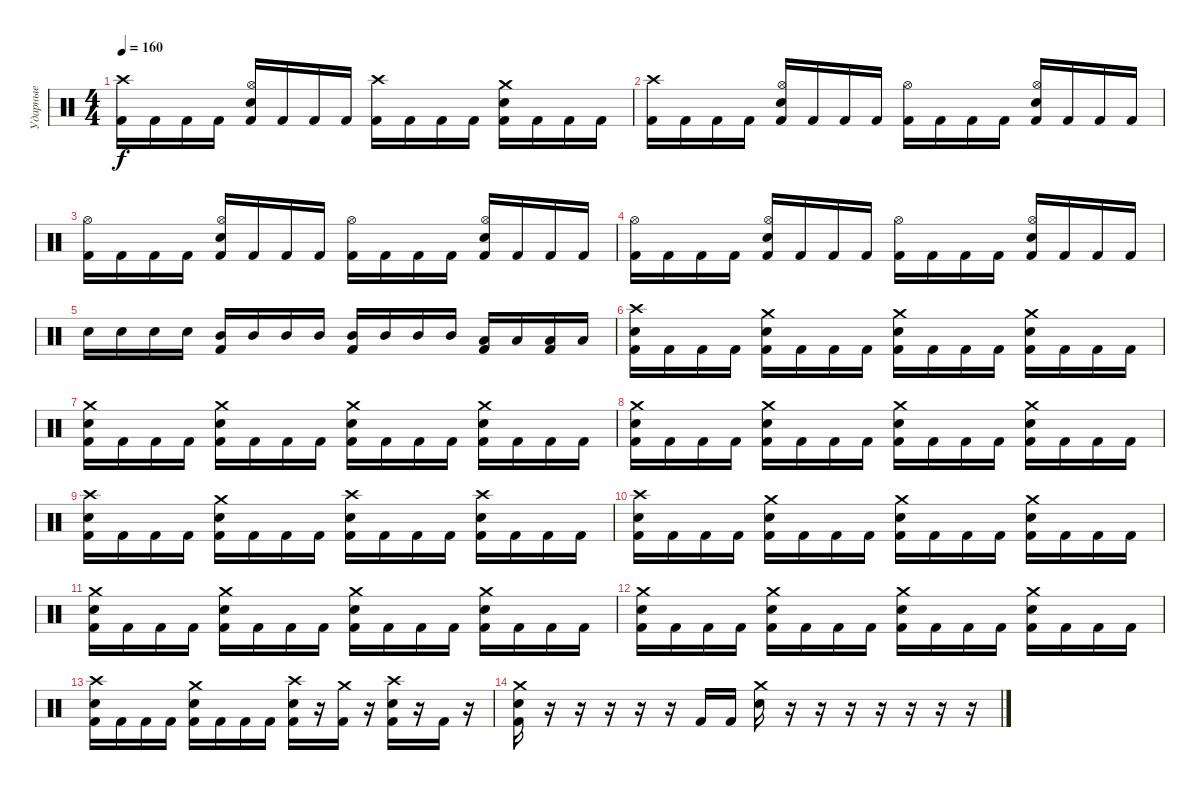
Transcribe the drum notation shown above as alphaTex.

\track ("Ударные" "Ударные") {instrument percussion}
\staff {score}
\articulation defaults
\ts (4 4)
\tempo 160
\clef neutral
\ks c
("Crash high (hit)" "Kick (hit) 2").16{dy f} "Kick (hit) 2".16 "Kick (hit) 2".16 "Kick (hit) 2".16 ("Hi-Hat (open)" "Electric Snare (hit)" "Kick (hit) 2").16 "Kick (hit) 2".16 "Kick (hit) 2".16 "Kick (hit) 2".16 ("Crash high (hit)" "Kick (hit) 2").16 "Kick (hit) 2".16 "Kick (hit) 2".16 "Kick (hit) 2".16 ("Crash medium (hit)" "Electric Snare (hit)" "Kick (hit) 2").16 "Kick (hit) 2".16 "Kick (hit) 2".16 "Kick (hit) 2".16 |
("Crash high (hit)" "Kick (hit) 2").16 "Kick (hit) 2".16 "Kick (hit) 2".16 "Kick (hit) 2".16 ("Hi-Hat (open)" "Electric Snare (hit)" "Kick (hit) 2").16 "Kick (hit) 2".16 "Kick (hit) 2".16 "Kick (hit) 2".16 ("Hi-Hat (open)" "Kick (hit) 2").16 "Kick (hit) 2".16 "Kick (hit) 2".16 "Kick (hit) 2".16 ("Hi-Hat (open)" "Electric Snare (hit)" "Kick (hit) 2").16 "Kick (hit) 2".16 "Kick (hit) 2".16 "Kick (hit) 2".16 |
("Hi-Hat (open)" "Kick (hit) 2").16 "Kick (hit) 2".16 "Kick (hit) 2".16 "Kick (hit) 2".16 ("Hi-Hat (open)" "Electric Snare (hit)" "Kick (hit) 2").16 "Kick (hit) 2".16 "Kick (hit) 2".16 "Kick (hit) 2".16 ("Hi-Hat (open)" "Kick (hit) 2").16 "Kick (hit) 2".16 "Kick (hit) 2".16 "Kick (hit) 2".16 ("Hi-Hat (open)" "Electric Snare (hit)" "Kick (hit) 2").16 "Kick (hit) 2".16 "Kick (hit) 2".16 "Kick (hit) 2".16 |
("Hi-Hat (open)" "Kick (hit) 2").16 "Kick (hit) 2".16 "Kick (hit) 2".16 "Kick (hit) 2".16 ("Hi-Hat (open)" "Electric Snare (hit)" "Kick (hit) 2").16 "Kick (hit) 2".16 "Kick (hit) 2".16 "Kick (hit) 2".16 ("Hi-Hat (open)" "Kick (hit) 2").16 "Kick (hit) 2".16 "Kick (hit) 2".16 "Kick (hit) 2".16 ("Hi-Hat (open)" "Electric Snare (hit)" "Kick (hit) 2").16 "Kick (hit) 2".16 "Kick (hit) 2".16 "Kick (hit) 2".16 |
"Electric Snare (hit)".16 "Electric Snare (hit)".16 "Electric Snare (hit)".16 "Electric Snare (hit)".16 ("Mid Tom (hit)" "Kick (hit) 2").16 "Mid Tom (hit)".16 "Mid Tom (hit)".16 "Mid Tom (hit)".16 ("Mid Tom (hit)" "Kick (hit) 2").16 "Mid Tom (hit)".16 "Mid Tom (hit)".16 "Mid Tom (hit)".16 ("Low Tom (hit)" "Kick (hit) 2").16 "Low Tom (hit)".16 ("Low Tom (hit)" "Kick (hit) 2").16 "Low Tom (hit)".16 |
("Crash high (hit)" "Electric Snare (hit)" "Kick (hit) 2").16 "Kick (hit) 2".16 "Kick (hit) 2".16 "Kick (hit) 2".16 ("Crash medium (hit)" "Electric Snare (hit)" "Kick (hit) 2").16 "Kick (hit) 2".16 "Kick (hit) 2".16 "Kick (hit) 2".16 ("Crash medium (hit)" "Electric Snare (hit)" "Kick (hit) 2").16 "Kick (hit) 2".16 "Kick (hit) 2".16 "Kick (hit) 2".16 ("Crash medium (hit)" "Electric Snare (hit)" "Kick (hit) 2").16 "Kick (hit) 2".16 "Kick (hit) 2".16 "Kick (hit) 2".16 |
("Crash medium (hit)" "Electric Snare (hit)" "Kick (hit) 2").16 "Kick (hit) 2".16 "Kick (hit) 2".16 "Kick (hit) 2".16 ("Crash medium (hit)" "Electric Snare (hit)" "Kick (hit) 2").16 "Kick (hit) 2".16 "Kick (hit) 2".16 "Kick (hit) 2".16 ("Crash medium (hit)" "Electric Snare (hit)" "Kick (hit) 2").16 "Kick (hit) 2".16 "Kick (hit) 2".16 "Kick (hit) 2".16 ("Crash medium (hit)" "Electric Snare (hit)" "Kick (hit) 2").16 "Kick (hit) 2".16 "Kick (hit) 2".16 "Kick (hit) 2".16 |
("Crash medium (hit)" "Electric Snare (hit)" "Kick (hit) 2").16 "Kick (hit) 2".16 "Kick (hit) 2".16 "Kick (hit) 2".16 ("Crash medium (hit)" "Electric Snare (hit)" "Kick (hit) 2").16 "Kick (hit) 2".16 "Kick (hit) 2".16 "Kick (hit) 2".16 ("Crash medium (hit)" "Electric Snare (hit)" "Kick (hit) 2").16 "Kick (hit) 2".16 "Kick (hit) 2".16 "Kick (hit) 2".16 ("Crash medium (hit)" "Electric Snare (hit)" "Kick (hit) 2").16 "Kick (hit) 2".16 "Kick (hit) 2".16 "Kick (hit) 2".16 |
("Crash high (hit)" "Electric Snare (hit)" "Kick (hit) 2").16 "Kick (hit) 2".16 "Kick (hit) 2".16 "Kick (hit) 2".16 ("Crash medium (hit)" "Electric Snare (hit)" "Kick (hit) 2").16 "Kick (hit) 2".16 "Kick (hit) 2".16 "Kick (hit) 2".16 ("Crash high (hit)" "Electric Snare (hit)" "Kick (hit) 2").16 "Kick (hit) 2".16 "Kick (hit) 2".16 "Kick (hit) 2".16 ("Crash high (hit)" "Electric Snare (hit)" "Kick (hit) 2").16 "Kick (hit) 2".16 "Kick (hit) 2".16 "Kick (hit) 2".16 |
("Crash high (hit)" "Electric Snare (hit)" "Kick (hit) 2").16 "Kick (hit) 2".16 "Kick (hit) 2".16 "Kick (hit) 2".16 ("Crash medium (hit)" "Electric Snare (hit)" "Kick (hit) 2").16 "Kick (hit) 2".16 "Kick (hit) 2".16 "Kick (hit) 2".16 ("Crash medium (hit)" "Electric Snare (hit)" "Kick (hit) 2").16 "Kick (hit) 2".16 "Kick (hit) 2".16 "Kick (hit) 2".16 ("Crash medium (hit)" "Electric Snare (hit)" "Kick (hit) 2").16 "Kick (hit) 2".16 "Kick (hit) 2".16 "Kick (hit) 2".16 |
("Crash medium (hit)" "Electric Snare (hit)" "Kick (hit) 2").16 "Kick (hit) 2".16 "Kick (hit) 2".16 "Kick (hit) 2".16 ("Crash medium (hit)" "Electric Snare (hit)" "Kick (hit) 2").16 "Kick (hit) 2".16 "Kick (hit) 2".16 "Kick (hit) 2".16 ("Crash medium (hit)" "Electric Snare (hit)" "Kick (hit) 2").16 "Kick (hit) 2".16 "Kick (hit) 2".16 "Kick (hit) 2".16 ("Crash medium (hit)" "Electric Snare (hit)" "Kick (hit) 2").16 "Kick (hit) 2".16 "Kick (hit) 2".16 "Kick (hit) 2".16 |
("Crash medium (hit)" "Electric Snare (hit)" "Kick (hit) 2").16 "Kick (hit) 2".16 "Kick (hit) 2".16 "Kick (hit) 2".16 ("Crash medium (hit)" "Electric Snare (hit)" "Kick (hit) 2").16 "Kick (hit) 2".16 "Kick (hit) 2".16 "Kick (hit) 2".16 ("Crash medium (hit)" "Electric Snare (hit)" "Kick (hit) 2").16 "Kick (hit) 2".16 "Kick (hit) 2".16 "Kick (hit) 2".16 ("Crash medium (hit)" "Electric Snare (hit)" "Kick (hit) 2").16 "Kick (hit) 2".16 "Kick (hit) 2".16 "Kick (hit) 2".16 |
("Crash high (hit)" "Electric Snare (hit)" "Kick (hit) 2").16 "Kick (hit) 2".16 "Kick (hit) 2".16 "Kick (hit) 2".16 ("Crash medium (hit)" "Electric Snare (hit)" "Kick (hit) 2").16 "Kick (hit) 2".16 "Kick (hit) 2".16 "Kick (hit) 2".16 ("Crash high (hit)" "Electric Snare (hit)" "Kick (hit) 2").16 r.16 ("Crash medium (hit)" "Kick (hit) 2").16 r.16 ("Crash high (hit)" "Electric Snare (hit)" "Kick (hit) 2").16 r.16 "Kick (hit) 2".16 r.16 |
("Crash medium (hit)" "Electric Snare (hit)" "Kick (hit) 2").16 r.16 r.16 r.16 r.16 r.16 "Kick (hit) 2".16 "Kick (hit) 2".16 ("Crash medium (hit)" "Electric Snare (hit)").16 r.16 r.16 r.16 r.16 r.16 r.16 r.16
